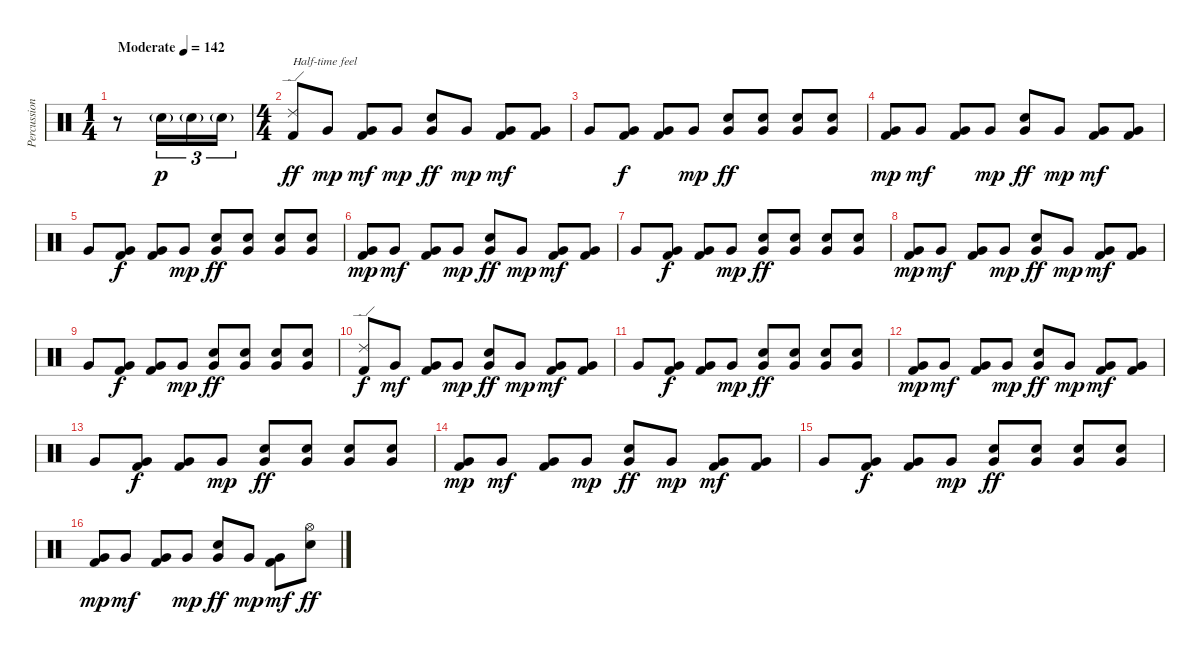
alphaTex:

\track ("Percussion" "Percussion") {instrument percussion}
\staff {score}
\articulation defaults
\ts (1 4)
\tempo (142 "Moderate")
\clef neutral
\ks c
r.8{dy p} "Snare (hit) 2"{g}.16{tu (3 2)} "Snare (hit) 2"{g}.16{tu (3 2)} "Snare (hit) 2"{g}.16{tu (3 2)} |
\ts (4 4)
("Ride (edge) 2" "Kick (hit) 2").8{txt "Half-time feel" dy ff} "Very Low Tom (hit)".8{dy mp} ("Very Low Tom (hit)" "Kick (hit) 2").8{dy mf} "Very Low Tom (hit)".8{dy mp} ("Very Low Tom (hit)" "Snare (hit) 2").8{dy ff} "Very Low Tom (hit)".8{dy mp} ("Very Low Tom (hit)" "Kick (hit) 2").8{dy mf} ("Very Low Tom (hit)" "Kick (hit) 2").8 |
"Very Low Tom (hit)".8 ("Very Low Tom (hit)" "Kick (hit) 2").8{dy f} ("Very Low Tom (hit)" "Kick (hit) 2").8 "Very Low Tom (hit)".8{dy mp} ("Very Low Tom (hit)" "Snare (hit) 2").8{dy ff} ("Very Low Tom (hit)" "Snare (hit) 2").8 ("Very Low Tom (hit)" "Snare (hit) 2").8 ("Very Low Tom (hit)" "Snare (hit) 2").8 |
("Very Low Tom (hit)" "Kick (hit) 2").8{dy mp} "Very Low Tom (hit)".8{dy mf} ("Very Low Tom (hit)" "Kick (hit) 2").8 "Very Low Tom (hit)".8{dy mp} ("Very Low Tom (hit)" "Snare (hit) 2").8{dy ff} "Very Low Tom (hit)".8{dy mp} ("Very Low Tom (hit)" "Kick (hit) 2").8{dy mf} ("Very Low Tom (hit)" "Kick (hit) 2").8 |
"Very Low Tom (hit)".8 ("Very Low Tom (hit)" "Kick (hit) 2").8{dy f} ("Very Low Tom (hit)" "Kick (hit) 2").8 "Very Low Tom (hit)".8{dy mp} ("Very Low Tom (hit)" "Snare (hit) 2").8{dy ff} ("Very Low Tom (hit)" "Snare (hit) 2").8 ("Very Low Tom (hit)" "Snare (hit) 2").8 ("Very Low Tom (hit)" "Snare (hit) 2").8 |
("Very Low Tom (hit)" "Kick (hit) 2").8{dy mp} "Very Low Tom (hit)".8{dy mf} ("Very Low Tom (hit)" "Kick (hit) 2").8 "Very Low Tom (hit)".8{dy mp} ("Very Low Tom (hit)" "Snare (hit) 2").8{dy ff} "Very Low Tom (hit)".8{dy mp} ("Very Low Tom (hit)" "Kick (hit) 2").8{dy mf} ("Very Low Tom (hit)" "Kick (hit) 2").8 |
"Very Low Tom (hit)".8 ("Very Low Tom (hit)" "Kick (hit) 2").8{dy f} ("Very Low Tom (hit)" "Kick (hit) 2").8 "Very Low Tom (hit)".8{dy mp} ("Very Low Tom (hit)" "Snare (hit) 2").8{dy ff} ("Very Low Tom (hit)" "Snare (hit) 2").8 ("Very Low Tom (hit)" "Snare (hit) 2").8 ("Very Low Tom (hit)" "Snare (hit) 2").8 |
("Very Low Tom (hit)" "Kick (hit) 2").8{dy mp} "Very Low Tom (hit)".8{dy mf} ("Very Low Tom (hit)" "Kick (hit) 2").8 "Very Low Tom (hit)".8{dy mp} ("Very Low Tom (hit)" "Snare (hit) 2").8{dy ff} "Very Low Tom (hit)".8{dy mp} ("Very Low Tom (hit)" "Kick (hit) 2").8{dy mf} ("Very Low Tom (hit)" "Kick (hit) 2").8 |
"Very Low Tom (hit)".8 ("Very Low Tom (hit)" "Kick (hit) 2").8{dy f} ("Very Low Tom (hit)" "Kick (hit) 2").8 "Very Low Tom (hit)".8{dy mp} ("Very Low Tom (hit)" "Snare (hit) 2").8{dy ff} ("Very Low Tom (hit)" "Snare (hit) 2").8 ("Very Low Tom (hit)" "Snare (hit) 2").8 ("Very Low Tom (hit)" "Snare (hit) 2").8 |
("Ride (edge) 2" "Kick (hit) 2").8{dy f} "Very Low Tom (hit)".8{dy mf} ("Very Low Tom (hit)" "Kick (hit) 2").8 "Very Low Tom (hit)".8{dy mp} ("Very Low Tom (hit)" "Snare (hit) 2").8{dy ff} "Very Low Tom (hit)".8{dy mp} ("Very Low Tom (hit)" "Kick (hit) 2").8{dy mf} ("Very Low Tom (hit)" "Kick (hit) 2").8 |
"Very Low Tom (hit)".8 ("Very Low Tom (hit)" "Kick (hit) 2").8{dy f} ("Very Low Tom (hit)" "Kick (hit) 2").8 "Very Low Tom (hit)".8{dy mp} ("Very Low Tom (hit)" "Snare (hit) 2").8{dy ff} ("Very Low Tom (hit)" "Snare (hit) 2").8 ("Very Low Tom (hit)" "Snare (hit) 2").8 ("Very Low Tom (hit)" "Snare (hit) 2").8 |
("Very Low Tom (hit)" "Kick (hit) 2").8{dy mp} "Very Low Tom (hit)".8{dy mf} ("Very Low Tom (hit)" "Kick (hit) 2").8 "Very Low Tom (hit)".8{dy mp} ("Very Low Tom (hit)" "Snare (hit) 2").8{dy ff} "Very Low Tom (hit)".8{dy mp} ("Very Low Tom (hit)" "Kick (hit) 2").8{dy mf} ("Very Low Tom (hit)" "Kick (hit) 2").8 |
"Very Low Tom (hit)".8 ("Very Low Tom (hit)" "Kick (hit) 2").8{dy f} ("Very Low Tom (hit)" "Kick (hit) 2").8 "Very Low Tom (hit)".8{dy mp} ("Very Low Tom (hit)" "Snare (hit) 2").8{dy ff} ("Very Low Tom (hit)" "Snare (hit) 2").8 ("Very Low Tom (hit)" "Snare (hit) 2").8 ("Very Low Tom (hit)" "Snare (hit) 2").8 |
("Very Low Tom (hit)" "Kick (hit) 2").8{dy mp} "Very Low Tom (hit)".8{dy mf} ("Very Low Tom (hit)" "Kick (hit) 2").8 "Very Low Tom (hit)".8{dy mp} ("Very Low Tom (hit)" "Snare (hit) 2").8{dy ff} "Very Low Tom (hit)".8{dy mp} ("Very Low Tom (hit)" "Kick (hit) 2").8{dy mf} ("Very Low Tom (hit)" "Kick (hit) 2").8 |
"Very Low Tom (hit)".8 ("Very Low Tom (hit)" "Kick (hit) 2").8{dy f} ("Very Low Tom (hit)" "Kick (hit) 2").8 "Very Low Tom (hit)".8{dy mp} ("Very Low Tom (hit)" "Snare (hit) 2").8{dy ff} ("Very Low Tom (hit)" "Snare (hit) 2").8 ("Very Low Tom (hit)" "Snare (hit) 2").8 ("Very Low Tom (hit)" "Snare (hit) 2").8 |
("Very Low Tom (hit)" "Kick (hit) 2").8{dy mp} "Very Low Tom (hit)".8{dy mf} ("Very Low Tom (hit)" "Kick (hit) 2").8 "Very Low Tom (hit)".8{dy mp} ("Very Low Tom (hit)" "Snare (hit) 2").8{dy ff} "Very Low Tom (hit)".8{dy mp} ("Very Low Tom (hit)" "Kick (hit) 2").8{dy mf} ("Hi-Hat (open)" "Snare (hit) 2").8{dy ff}
